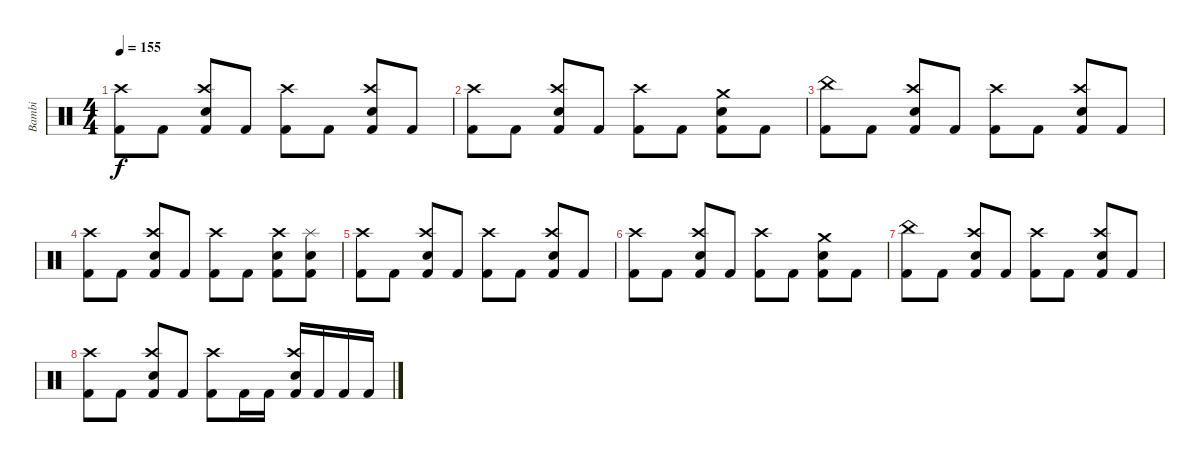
\track ("Bambi" "Bambi") {instrument percussion}
\staff {score}
\articulation defaults
\ts (4 4)
\tempo 155
\clef neutral
\ks c
("Kick (hit) 2" "Crash high (hit)").8{dy f} "Kick (hit) 2".8 ("Kick (hit) 2" "Crash high (hit)" "Electric Snare (hit)").8 "Kick (hit) 2".8 ("Kick (hit) 2" "Crash high (hit)").8 "Kick (hit) 2".8 ("Kick (hit) 2" "Crash high (hit)" "Electric Snare (hit)").8 "Kick (hit) 2".8 |
("Kick (hit) 2" "Crash high (hit)").8 "Kick (hit) 2".8 ("Kick (hit) 2" "Crash high (hit)" "Electric Snare (hit)").8 "Kick (hit) 2".8 ("Kick (hit) 2" "Crash high (hit)").8 "Kick (hit) 2".8 ("Kick (hit) 2" "Crash medium (hit)" "Electric Snare (hit)").8 "Kick (hit) 2".8 |
("Kick (hit) 2" "China (hit)").8 "Kick (hit) 2".8 ("Kick (hit) 2" "Crash high (hit)" "Electric Snare (hit)").8 "Kick (hit) 2".8 ("Kick (hit) 2" "Crash high (hit)").8 "Kick (hit) 2".8 ("Kick (hit) 2" "Crash high (hit)" "Electric Snare (hit)").8 "Kick (hit) 2".8 |
("Kick (hit) 2" "Crash high (hit)").8 "Kick (hit) 2".8 ("Kick (hit) 2" "Crash high (hit)" "Electric Snare (hit)").8 "Kick (hit) 2".8 ("Kick (hit) 2" "Crash high (hit)").8 "Kick (hit) 2".8 ("Kick (hit) 2" "Crash high (hit)" "Electric Snare (hit)").8 ("Kick (hit) 2" "Electric Snare (hit)" "Splash (hit)").8 |
("Kick (hit) 2" "Crash high (hit)").8 "Kick (hit) 2".8 ("Kick (hit) 2" "Crash high (hit)" "Electric Snare (hit)").8 "Kick (hit) 2".8 ("Kick (hit) 2" "Crash high (hit)").8 "Kick (hit) 2".8 ("Kick (hit) 2" "Crash high (hit)" "Electric Snare (hit)").8 "Kick (hit) 2".8 |
("Kick (hit) 2" "Crash high (hit)").8 "Kick (hit) 2".8 ("Kick (hit) 2" "Crash high (hit)" "Electric Snare (hit)").8 "Kick (hit) 2".8 ("Kick (hit) 2" "Crash high (hit)").8 "Kick (hit) 2".8 ("Kick (hit) 2" "Crash medium (hit)" "Electric Snare (hit)").8 "Kick (hit) 2".8 |
("Kick (hit) 2" "China (hit)").8 "Kick (hit) 2".8 ("Kick (hit) 2" "Crash high (hit)" "Electric Snare (hit)").8 "Kick (hit) 2".8 ("Kick (hit) 2" "Crash high (hit)").8 "Kick (hit) 2".8 ("Kick (hit) 2" "Crash high (hit)" "Electric Snare (hit)").8 "Kick (hit) 2".8 |
("Kick (hit) 2" "Crash high (hit)").8 "Kick (hit) 2".8 ("Kick (hit) 2" "Crash high (hit)" "Electric Snare (hit)").8 "Kick (hit) 2".8 ("Kick (hit) 2" "Crash high (hit)").8 "Kick (hit) 2".16 "Kick (hit) 2".16 ("Kick (hit) 2" "Crash high (hit)" "Electric Snare (hit)").16 "Kick (hit) 2".16 "Kick (hit) 2".16 "Kick (hit) 2".16
